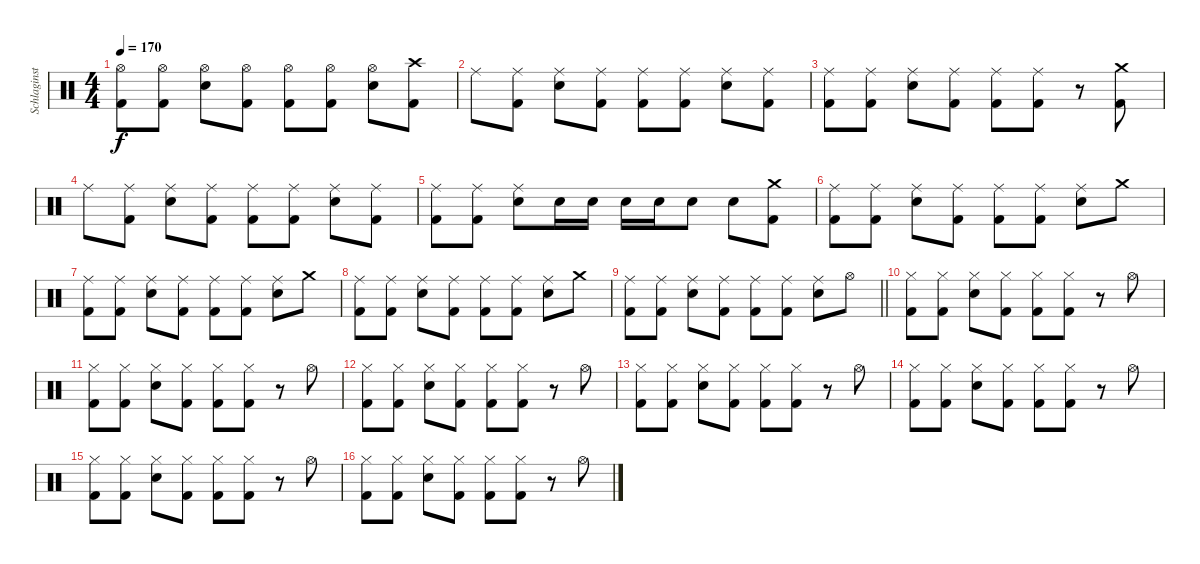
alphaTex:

\track ("Schlaginstrumente - Auswahl" "Schlaginst") {instrument percussion}
\staff {score}
\articulation defaults
\ts (4 4)
\tempo 170
\clef neutral
\ks c
("Hi-Hat (open)" "Kick (hit) 2").8{dy f} ("Hi-Hat (open)" "Kick (hit) 2").8 ("Hi-Hat (open)" "Snare (hit) 2").8 ("Hi-Hat (open)" "Kick (hit) 2").8 ("Hi-Hat (open)" "Kick (hit) 2").8 ("Hi-Hat (open)" "Kick (hit) 2").8 ("Hi-Hat (open)" "Snare (hit) 2").8 ("Crash high (hit)" "Kick (hit) 2").8 |
"Ride (middle)".8 ("Ride (middle)" "Kick (hit) 2").8 ("Ride (middle)" "Snare (hit) 2").8 ("Ride (middle)" "Kick (hit) 2").8 ("Ride (middle)" "Kick (hit) 2").8 ("Ride (middle)" "Kick (hit) 2").8 ("Ride (middle)" "Snare (hit) 2").8 ("Ride (middle)" "Kick (hit) 2").8 |
("Ride (middle)" "Kick (hit) 2").8 ("Ride (middle)" "Kick (hit) 2").8 ("Ride (middle)" "Snare (hit) 2").8 ("Ride (middle)" "Kick (hit) 2").8 ("Ride (middle)" "Kick (hit) 2").8 ("Ride (middle)" "Kick (hit) 2").8 r.8 ("Crash medium (hit)" "Kick (hit) 2").8 |
"Ride (middle)".8 ("Ride (middle)" "Kick (hit) 2").8 ("Ride (middle)" "Snare (hit) 2").8 ("Ride (middle)" "Kick (hit) 2").8 ("Ride (middle)" "Kick (hit) 2").8 ("Ride (middle)" "Kick (hit) 2").8 ("Ride (middle)" "Snare (hit) 2").8 ("Ride (middle)" "Kick (hit) 2").8 |
("Ride (middle)" "Kick (hit) 2").8 ("Ride (middle)" "Kick (hit) 2").8 ("Ride (middle)" "Snare (hit) 2").8 "Snare (hit) 2".16 "Snare (hit) 2".16 "Snare (hit) 2".16 "Snare (hit) 2".16 "Snare (hit) 2".8 "Snare (hit) 2".8 ("Crash medium (hit)" "Kick (hit) 2").8 |
("Ride (middle)" "Kick (hit) 2").8 ("Ride (middle)" "Kick (hit) 2").8 ("Ride (middle)" "Snare (hit) 2").8 ("Ride (middle)" "Kick (hit) 2").8 ("Ride (middle)" "Kick (hit) 2").8 ("Ride (middle)" "Kick (hit) 2").8 ("Ride (middle)" "Snare (hit) 2").8 "Crash medium (hit)".8 |
("Ride (middle)" "Kick (hit) 2").8 ("Ride (middle)" "Kick (hit) 2").8 ("Ride (middle)" "Snare (hit) 2").8 ("Ride (middle)" "Kick (hit) 2").8 ("Ride (middle)" "Kick (hit) 2").8 ("Ride (middle)" "Kick (hit) 2").8 ("Ride (middle)" "Snare (hit) 2").8 "Crash medium (hit)".8 |
("Ride (middle)" "Kick (hit) 2").8 ("Ride (middle)" "Kick (hit) 2").8 ("Ride (middle)" "Snare (hit) 2").8 ("Ride (middle)" "Kick (hit) 2").8 ("Ride (middle)" "Kick (hit) 2").8 ("Ride (middle)" "Kick (hit) 2").8 ("Ride (middle)" "Snare (hit) 2").8 "Crash medium (hit)".8 |
\barLineRight lightlight
("Ride (middle)" "Kick (hit) 2").8 ("Ride (middle)" "Kick (hit) 2").8 ("Ride (middle)" "Snare (hit) 2").8 ("Ride (middle)" "Kick (hit) 2").8 ("Ride (middle)" "Kick (hit) 2").8 ("Ride (middle)" "Kick (hit) 2").8 ("Ride (middle)" "Snare (hit) 2").8 "Hi-Hat (open)".8 |
("Hi-Hat (closed)" "Kick (hit) 2").8 ("Hi-Hat (closed)" "Kick (hit) 2").8 ("Hi-Hat (closed)" "Snare (hit) 2").8 ("Hi-Hat (closed)" "Kick (hit) 2").8 ("Hi-Hat (closed)" "Kick (hit) 2").8 ("Hi-Hat (closed)" "Kick (hit) 2").8 r.8 "Hi-Hat (open)".8 |
("Hi-Hat (closed)" "Kick (hit) 2").8 ("Hi-Hat (closed)" "Kick (hit) 2").8 ("Hi-Hat (closed)" "Snare (hit) 2").8 ("Hi-Hat (closed)" "Kick (hit) 2").8 ("Hi-Hat (closed)" "Kick (hit) 2").8 ("Hi-Hat (closed)" "Kick (hit) 2").8 r.8 "Hi-Hat (open)".8 |
("Hi-Hat (closed)" "Kick (hit) 2").8 ("Hi-Hat (closed)" "Kick (hit) 2").8 ("Hi-Hat (closed)" "Snare (hit) 2").8 ("Hi-Hat (closed)" "Kick (hit) 2").8 ("Hi-Hat (closed)" "Kick (hit) 2").8 ("Hi-Hat (closed)" "Kick (hit) 2").8 r.8 "Hi-Hat (open)".8 |
("Hi-Hat (closed)" "Kick (hit) 2").8 ("Hi-Hat (closed)" "Kick (hit) 2").8 ("Hi-Hat (closed)" "Snare (hit) 2").8 ("Hi-Hat (closed)" "Kick (hit) 2").8 ("Hi-Hat (closed)" "Kick (hit) 2").8 ("Hi-Hat (closed)" "Kick (hit) 2").8 r.8 "Hi-Hat (open)".8 |
("Hi-Hat (closed)" "Kick (hit) 2").8 ("Hi-Hat (closed)" "Kick (hit) 2").8 ("Hi-Hat (closed)" "Snare (hit) 2").8 ("Hi-Hat (closed)" "Kick (hit) 2").8 ("Hi-Hat (closed)" "Kick (hit) 2").8 ("Hi-Hat (closed)" "Kick (hit) 2").8 r.8 "Hi-Hat (open)".8 |
("Hi-Hat (closed)" "Kick (hit) 2").8 ("Hi-Hat (closed)" "Kick (hit) 2").8 ("Hi-Hat (closed)" "Snare (hit) 2").8 ("Hi-Hat (closed)" "Kick (hit) 2").8 ("Hi-Hat (closed)" "Kick (hit) 2").8 ("Hi-Hat (closed)" "Kick (hit) 2").8 r.8 "Hi-Hat (open)".8 |
("Hi-Hat (closed)" "Kick (hit) 2").8 ("Hi-Hat (closed)" "Kick (hit) 2").8 ("Hi-Hat (closed)" "Snare (hit) 2").8 ("Hi-Hat (closed)" "Kick (hit) 2").8 ("Hi-Hat (closed)" "Kick (hit) 2").8 ("Hi-Hat (closed)" "Kick (hit) 2").8 r.8 "Hi-Hat (open)".8
